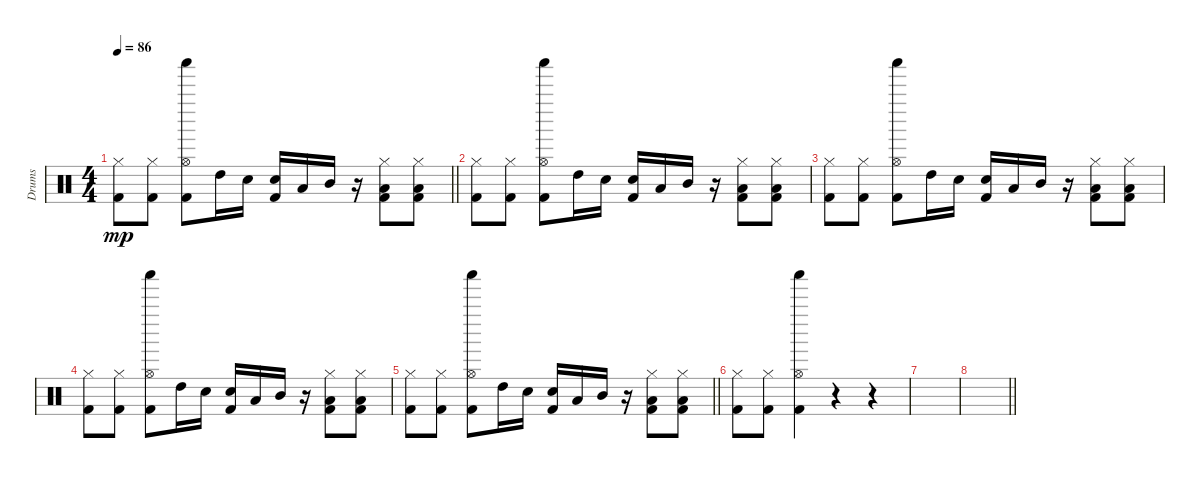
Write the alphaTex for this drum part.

\track ("Drums" "Drums") {instrument percussion}
\staff
\articulation defaults
\ts (4 4)
\tempo 86
\clef neutral
\barLineRight lightlight
\ks c
("Hi-Hat (closed)" "Kick (hit) 2").8{dy mp} ("Hi-Hat (closed)" "Kick (hit) 2").8 ("Hi-Hat (open)" "Shaker (hit)" "Kick (hit) 2").8 "High Tom (hit)".16 "Electric Snare (hit)".16 ("Electric Snare (hit)" "Kick (hit) 2").16 "Low Tom (hit)".16 "Mid Tom (hit)".16 r.16 ("Hi-Hat (closed)" "Low Tom (hit)" "Kick (hit) 2").8 ("Hi-Hat (closed)" "Low Tom (hit)" "Kick (hit) 2").8 |
("Hi-Hat (closed)" "Kick (hit) 2").8 ("Hi-Hat (closed)" "Kick (hit) 2").8 ("Hi-Hat (open)" "Shaker (hit)" "Kick (hit) 2").8 "High Tom (hit)".16 "Electric Snare (hit)".16 ("Electric Snare (hit)" "Kick (hit) 2").16 "Low Tom (hit)".16 "Mid Tom (hit)".16 r.16 ("Hi-Hat (closed)" "Low Tom (hit)" "Kick (hit) 2").8 ("Hi-Hat (closed)" "Low Tom (hit)" "Kick (hit) 2").8 |
("Hi-Hat (closed)" "Kick (hit) 2").8 ("Hi-Hat (closed)" "Kick (hit) 2").8 ("Hi-Hat (open)" "Shaker (hit)" "Kick (hit) 2").8 "High Tom (hit)".16 "Electric Snare (hit)".16 ("Electric Snare (hit)" "Kick (hit) 2").16 "Low Tom (hit)".16 "Mid Tom (hit)".16 r.16 ("Hi-Hat (closed)" "Low Tom (hit)" "Kick (hit) 2").8 ("Hi-Hat (closed)" "Low Tom (hit)" "Kick (hit) 2").8 |
("Hi-Hat (closed)" "Kick (hit) 2").8 ("Hi-Hat (closed)" "Kick (hit) 2").8 ("Hi-Hat (open)" "Shaker (hit)" "Kick (hit) 2").8 "High Tom (hit)".16 "Electric Snare (hit)".16 ("Electric Snare (hit)" "Kick (hit) 2").16 "Low Tom (hit)".16 "Mid Tom (hit)".16 r.16 ("Hi-Hat (closed)" "Low Tom (hit)" "Kick (hit) 2").8 ("Hi-Hat (closed)" "Low Tom (hit)" "Kick (hit) 2").8 |
\barLineRight lightlight
("Hi-Hat (closed)" "Kick (hit) 2").8 ("Hi-Hat (closed)" "Kick (hit) 2").8 ("Hi-Hat (open)" "Shaker (hit)" "Kick (hit) 2").8 "High Tom (hit)".16 "Electric Snare (hit)".16 ("Electric Snare (hit)" "Kick (hit) 2").16 "Low Tom (hit)".16 "Mid Tom (hit)".16 r.16 ("Hi-Hat (closed)" "Low Tom (hit)" "Kick (hit) 2").8 ("Hi-Hat (closed)" "Low Tom (hit)" "Kick (hit) 2").8 |
("Hi-Hat (closed)" "Kick (hit) 2").8 ("Hi-Hat (closed)" "Kick (hit) 2").8 ("Hi-Hat (open)" "Shaker (hit)" "Kick (hit) 2").4 r.4 r.4 |
|
\barLineRight lightlight
